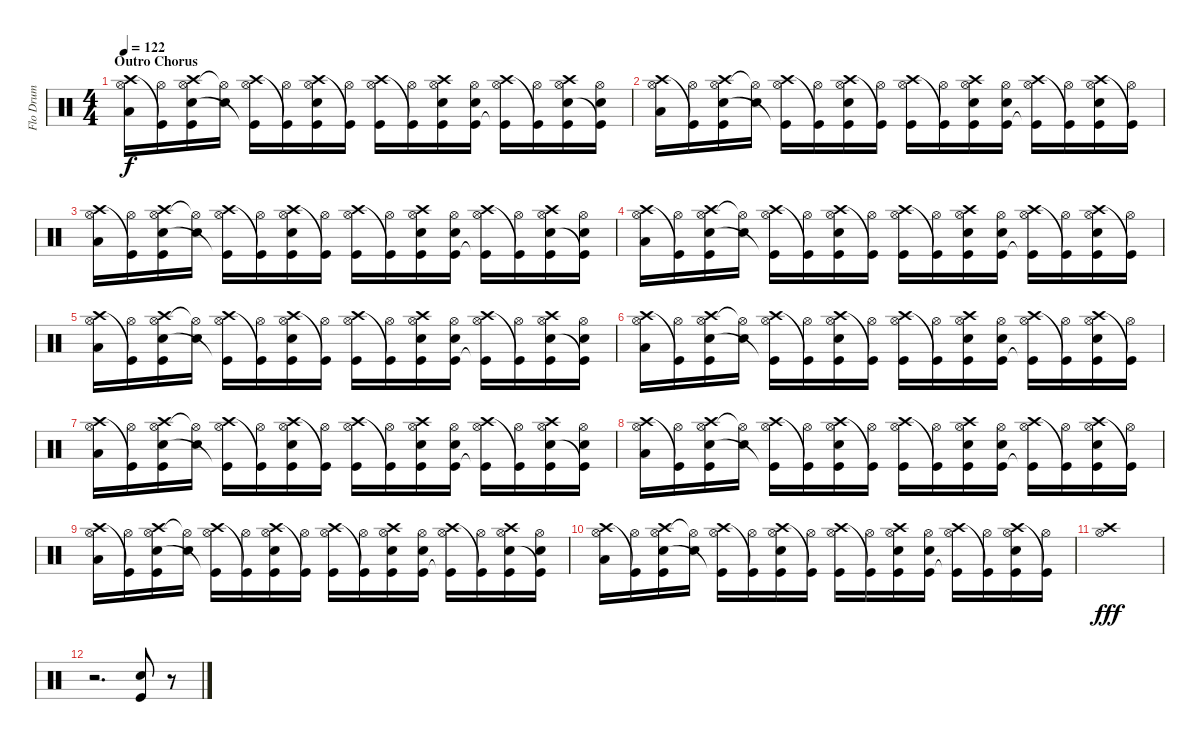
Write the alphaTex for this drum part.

\track ("Flo Drum" "Flo Drum") {instrument percussion}
\staff {score}
\articulation defaults
\ts (4 4)
\section ("" "Outro Chorus")
\tempo 122
\clef neutral
\ks c
("Hi-Hat (open)" "Crash high (hit)" "Low Floor Tom (hit)").16{dy f volume 12} ("Hi-Hat (open)" "Kick (hit)"{t}).16 ("Hi-Hat (open)" "Crash high (hit)" "Snare (hit) 2" "Kick (hit)").16 ("Hi-Hat (open)"{t} "Snare (hit) 2").16 ("Hi-Hat (open)" "Crash high (hit)" "Kick (hit)"{t}).16 ("Hi-Hat (open)" "Kick (hit)"{t}).16 ("Hi-Hat (open)" "Crash high (hit)" "Snare (hit) 2" "Kick (hit)").16 ("Hi-Hat (open)" "Kick (hit)"{t}).16 ("Hi-Hat (open)" "Crash high (hit)" "Kick (hit)").16 ("Hi-Hat (open)" "Kick (hit)"{t}).16 ("Hi-Hat (open)" "Crash high (hit)" "Snare (hit) 2" "Kick (hit)").16 ("Hi-Hat (open)" "Snare (hit) 2" "Kick (hit)").16 ("Hi-Hat (open)" "Crash high (hit)" "Kick (hit)"{t}).16 ("Hi-Hat (open)" "Kick (hit)"{t}).16 ("Hi-Hat (open)" "Crash high (hit)" "Snare (hit) 2" "Kick (hit)").16 ("Hi-Hat (open)" "Snare (hit) 2" "Kick (hit)"{t}).16 |
("Hi-Hat (open)" "Crash high (hit)" "Low Floor Tom (hit)").16 ("Hi-Hat (open)" "Kick (hit)"{t}).16 ("Hi-Hat (open)" "Crash high (hit)" "Snare (hit) 2" "Kick (hit)").16 ("Hi-Hat (open)"{t} "Snare (hit) 2").16 ("Hi-Hat (open)" "Crash high (hit)" "Kick (hit)"{t}).16 ("Hi-Hat (open)" "Kick (hit)"{t}).16 ("Hi-Hat (open)" "Crash high (hit)" "Snare (hit) 2" "Kick (hit)").16 ("Hi-Hat (open)" "Kick (hit)"{t}).16 ("Hi-Hat (open)" "Crash high (hit)" "Kick (hit)").16 ("Hi-Hat (open)" "Kick (hit)"{t}).16 ("Hi-Hat (open)" "Crash high (hit)" "Snare (hit) 2" "Kick (hit)").16 ("Hi-Hat (open)" "Snare (hit) 2" "Kick (hit)").16 ("Hi-Hat (open)" "Crash high (hit)" "Kick (hit)"{t}).16 ("Hi-Hat (open)" "Kick (hit)"{t}).16 ("Hi-Hat (open)" "Crash high (hit)" "Snare (hit) 2" "Kick (hit)").16 ("Hi-Hat (open)" "Kick (hit)"{t}).16 |
("Hi-Hat (open)" "Crash high (hit)" "Low Floor Tom (hit)").16 ("Hi-Hat (open)" "Kick (hit)"{t}).16 ("Hi-Hat (open)" "Crash high (hit)" "Snare (hit) 2" "Kick (hit)").16 ("Hi-Hat (open)"{t} "Snare (hit) 2").16 ("Hi-Hat (open)" "Crash high (hit)" "Kick (hit)"{t}).16 ("Hi-Hat (open)" "Kick (hit)"{t}).16 ("Hi-Hat (open)" "Crash high (hit)" "Snare (hit) 2" "Kick (hit)").16 ("Hi-Hat (open)" "Kick (hit)"{t}).16 ("Hi-Hat (open)" "Crash high (hit)" "Kick (hit)").16 ("Hi-Hat (open)" "Kick (hit)"{t}).16 ("Hi-Hat (open)" "Crash high (hit)" "Snare (hit) 2" "Kick (hit)").16 ("Hi-Hat (open)" "Snare (hit) 2" "Kick (hit)").16 ("Hi-Hat (open)" "Crash high (hit)" "Kick (hit)"{t}).16 ("Hi-Hat (open)" "Kick (hit)"{t}).16 ("Hi-Hat (open)" "Crash high (hit)" "Snare (hit) 2" "Kick (hit)").16 ("Hi-Hat (open)" "Snare (hit) 2" "Kick (hit)"{t}).16 |
("Hi-Hat (open)" "Crash high (hit)" "Low Floor Tom (hit)").16 ("Hi-Hat (open)" "Kick (hit)"{t}).16 ("Hi-Hat (open)" "Crash high (hit)" "Snare (hit) 2" "Kick (hit)").16 ("Hi-Hat (open)"{t} "Snare (hit) 2").16 ("Hi-Hat (open)" "Crash high (hit)" "Kick (hit)"{t}).16 ("Hi-Hat (open)" "Kick (hit)"{t}).16 ("Hi-Hat (open)" "Crash high (hit)" "Snare (hit) 2" "Kick (hit)").16 ("Hi-Hat (open)" "Kick (hit)"{t}).16 ("Hi-Hat (open)" "Crash high (hit)" "Kick (hit)").16 ("Hi-Hat (open)" "Kick (hit)"{t}).16 ("Hi-Hat (open)" "Crash high (hit)" "Snare (hit) 2" "Kick (hit)").16 ("Hi-Hat (open)" "Snare (hit) 2" "Kick (hit)").16 ("Hi-Hat (open)" "Crash high (hit)" "Kick (hit)"{t}).16 ("Hi-Hat (open)" "Kick (hit)"{t}).16 ("Hi-Hat (open)" "Crash high (hit)" "Snare (hit) 2" "Kick (hit)").16 ("Hi-Hat (open)" "Kick (hit)"{t}).16 |
("Hi-Hat (open)" "Crash high (hit)" "Low Floor Tom (hit)").16{volume 12} ("Hi-Hat (open)" "Kick (hit)"{t}).16 ("Hi-Hat (open)" "Crash high (hit)" "Snare (hit) 2" "Kick (hit)").16 ("Hi-Hat (open)"{t} "Snare (hit) 2").16 ("Hi-Hat (open)" "Crash high (hit)" "Kick (hit)"{t}).16 ("Hi-Hat (open)" "Kick (hit)"{t}).16 ("Hi-Hat (open)" "Crash high (hit)" "Snare (hit) 2" "Kick (hit)").16 ("Hi-Hat (open)" "Kick (hit)"{t}).16 ("Hi-Hat (open)" "Crash high (hit)" "Kick (hit)").16 ("Hi-Hat (open)" "Kick (hit)"{t}).16 ("Hi-Hat (open)" "Crash high (hit)" "Snare (hit) 2" "Kick (hit)").16 ("Hi-Hat (open)" "Snare (hit) 2" "Kick (hit)").16 ("Hi-Hat (open)" "Crash high (hit)" "Kick (hit)"{t}).16 ("Hi-Hat (open)" "Kick (hit)"{t}).16 ("Hi-Hat (open)" "Crash high (hit)" "Snare (hit) 2" "Kick (hit)").16 ("Hi-Hat (open)" "Snare (hit) 2" "Kick (hit)"{t}).16 |
("Hi-Hat (open)" "Crash high (hit)" "Low Floor Tom (hit)").16 ("Hi-Hat (open)" "Kick (hit)"{t}).16 ("Hi-Hat (open)" "Crash high (hit)" "Snare (hit) 2" "Kick (hit)").16 ("Hi-Hat (open)"{t} "Snare (hit) 2").16 ("Hi-Hat (open)" "Crash high (hit)" "Kick (hit)"{t}).16 ("Hi-Hat (open)" "Kick (hit)"{t}).16 ("Hi-Hat (open)" "Crash high (hit)" "Snare (hit) 2" "Kick (hit)").16 ("Hi-Hat (open)" "Kick (hit)"{t}).16 ("Hi-Hat (open)" "Crash high (hit)" "Kick (hit)").16 ("Hi-Hat (open)" "Kick (hit)"{t}).16 ("Hi-Hat (open)" "Crash high (hit)" "Snare (hit) 2" "Kick (hit)").16 ("Hi-Hat (open)" "Snare (hit) 2" "Kick (hit)").16 ("Hi-Hat (open)" "Crash high (hit)" "Kick (hit)"{t}).16 ("Hi-Hat (open)" "Kick (hit)"{t}).16 ("Hi-Hat (open)" "Crash high (hit)" "Snare (hit) 2" "Kick (hit)").16 ("Hi-Hat (open)" "Kick (hit)"{t}).16 |
("Hi-Hat (open)" "Crash high (hit)" "Low Floor Tom (hit)").16 ("Hi-Hat (open)" "Kick (hit)"{t}).16 ("Hi-Hat (open)" "Crash high (hit)" "Snare (hit) 2" "Kick (hit)").16 ("Hi-Hat (open)"{t} "Snare (hit) 2").16 ("Hi-Hat (open)" "Crash high (hit)" "Kick (hit)"{t}).16 ("Hi-Hat (open)" "Kick (hit)"{t}).16 ("Hi-Hat (open)" "Crash high (hit)" "Snare (hit) 2" "Kick (hit)").16 ("Hi-Hat (open)" "Kick (hit)"{t}).16 ("Hi-Hat (open)" "Crash high (hit)" "Kick (hit)").16 ("Hi-Hat (open)" "Kick (hit)"{t}).16 ("Hi-Hat (open)" "Crash high (hit)" "Snare (hit) 2" "Kick (hit)").16 ("Hi-Hat (open)" "Snare (hit) 2" "Kick (hit)").16 ("Hi-Hat (open)" "Crash high (hit)" "Kick (hit)"{t}).16 ("Hi-Hat (open)" "Kick (hit)"{t}).16 ("Hi-Hat (open)" "Crash high (hit)" "Snare (hit) 2" "Kick (hit)").16 ("Hi-Hat (open)" "Snare (hit) 2" "Kick (hit)"{t}).16 |
("Hi-Hat (open)" "Crash high (hit)" "Low Floor Tom (hit)").16 ("Hi-Hat (open)" "Kick (hit)"{t}).16 ("Hi-Hat (open)" "Crash high (hit)" "Snare (hit) 2" "Kick (hit)").16 ("Hi-Hat (open)"{t} "Snare (hit) 2").16 ("Hi-Hat (open)" "Crash high (hit)" "Kick (hit)"{t}).16 ("Hi-Hat (open)" "Kick (hit)"{t}).16 ("Hi-Hat (open)" "Crash high (hit)" "Snare (hit) 2" "Kick (hit)").16 ("Hi-Hat (open)" "Kick (hit)"{t}).16 ("Hi-Hat (open)" "Crash high (hit)" "Kick (hit)").16 ("Hi-Hat (open)" "Kick (hit)"{t}).16 ("Hi-Hat (open)" "Crash high (hit)" "Snare (hit) 2" "Kick (hit)").16 ("Hi-Hat (open)" "Snare (hit) 2" "Kick (hit)").16 ("Hi-Hat (open)" "Crash high (hit)" "Kick (hit)"{t}).16 ("Hi-Hat (open)" "Kick (hit)"{t}).16 ("Hi-Hat (open)" "Crash high (hit)" "Snare (hit) 2" "Kick (hit)").16 ("Hi-Hat (open)" "Kick (hit)"{t}).16 |
("Hi-Hat (open)" "Crash high (hit)" "Low Floor Tom (hit)").16 ("Hi-Hat (open)" "Kick (hit)"{t}).16 ("Hi-Hat (open)" "Crash high (hit)" "Snare (hit) 2" "Kick (hit)").16 ("Hi-Hat (open)"{t} "Snare (hit) 2").16 ("Hi-Hat (open)" "Crash high (hit)" "Kick (hit)"{t}).16 ("Hi-Hat (open)" "Kick (hit)"{t}).16 ("Hi-Hat (open)" "Crash high (hit)" "Snare (hit) 2" "Kick (hit)").16 ("Hi-Hat (open)" "Kick (hit)"{t}).16 ("Hi-Hat (open)" "Crash high (hit)" "Kick (hit)").16 ("Hi-Hat (open)" "Kick (hit)"{t}).16 ("Hi-Hat (open)" "Crash high (hit)" "Snare (hit) 2" "Kick (hit)").16 ("Hi-Hat (open)" "Snare (hit) 2" "Kick (hit)").16 ("Hi-Hat (open)" "Crash high (hit)" "Kick (hit)"{t}).16 ("Hi-Hat (open)" "Kick (hit)"{t}).16 ("Hi-Hat (open)" "Crash high (hit)" "Snare (hit) 2" "Kick (hit)").16 ("Hi-Hat (open)" "Snare (hit) 2" "Kick (hit)"{t}).16 |
("Hi-Hat (open)" "Crash high (hit)" "Low Floor Tom (hit)").16 ("Hi-Hat (open)" "Kick (hit)"{t}).16 ("Hi-Hat (open)" "Crash high (hit)" "Snare (hit) 2" "Kick (hit)").16 ("Hi-Hat (open)"{t} "Snare (hit) 2").16 ("Hi-Hat (open)" "Crash high (hit)" "Kick (hit)"{t}).16 ("Hi-Hat (open)" "Kick (hit)"{t}).16 ("Hi-Hat (open)" "Crash high (hit)" "Snare (hit) 2" "Kick (hit)").16 ("Hi-Hat (open)" "Kick (hit)"{t}).16 ("Hi-Hat (open)" "Crash high (hit)" "Kick (hit)").16 ("Hi-Hat (open)" "Kick (hit)"{t}).16 ("Hi-Hat (open)" "Crash high (hit)" "Snare (hit) 2" "Kick (hit)").16 ("Hi-Hat (open)" "Snare (hit) 2" "Kick (hit)").16 ("Hi-Hat (open)" "Crash high (hit)" "Kick (hit)"{t}).16 ("Hi-Hat (open)" "Kick (hit)"{t}).16 ("Hi-Hat (open)" "Crash high (hit)" "Snare (hit) 2" "Kick (hit)").16 ("Hi-Hat (open)" "Kick (hit)"{t}).16 |
("Crash high (hit)" "Hi-Hat (open)").1{dy fff} |
r.2{d} ("Kick (hit)" "Snare (hit) 2").8 r.8
